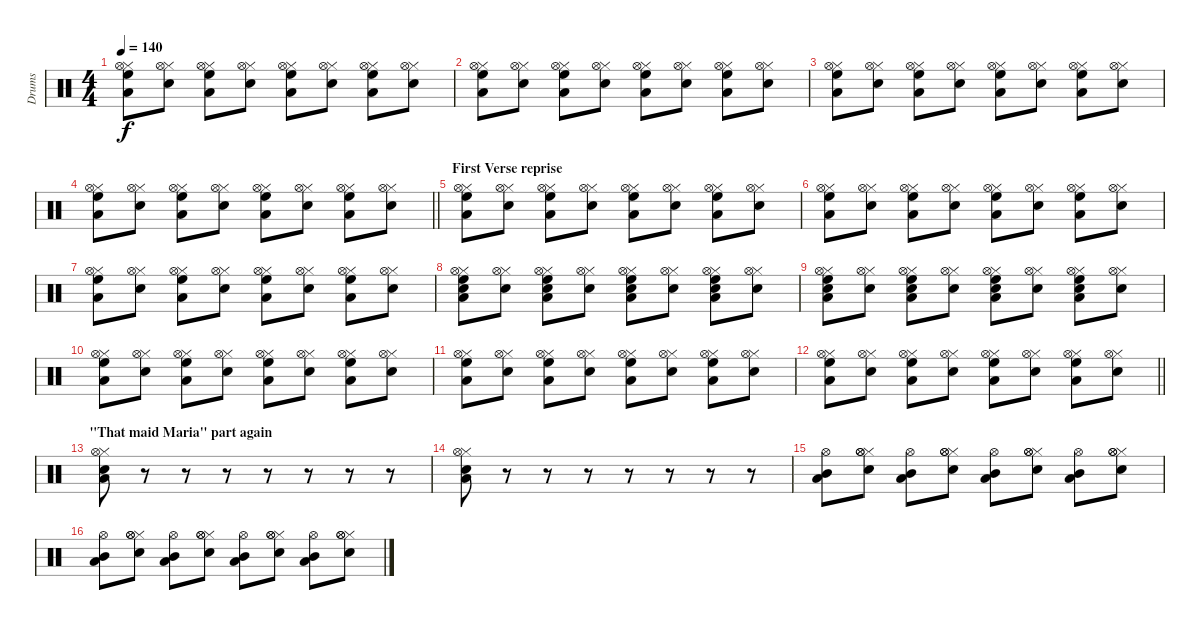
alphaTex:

\track ("Drums" "Drums") {instrument percussion}
\staff {score}
\articulation defaults
\ts (4 4)
\tempo 140
\clef neutral
\ks c
("Hi-Hat (closed)" "Low Tom (hit)" "Hi-Hat (open)" "High Floor Tom (hit)").8{dy f} ("Hi-Hat (closed)" "Hi-Hat (open)" "Electric Snare (hit)").8 ("Hi-Hat (closed)" "Low Tom (hit)" "Hi-Hat (open)" "High Floor Tom (hit)").8 ("Hi-Hat (closed)" "Hi-Hat (open)" "Electric Snare (hit)").8 ("Hi-Hat (closed)" "Low Tom (hit)" "Hi-Hat (open)" "High Floor Tom (hit)").8 ("Hi-Hat (closed)" "Hi-Hat (open)" "Electric Snare (hit)").8 ("Hi-Hat (closed)" "Low Tom (hit)" "Hi-Hat (open)" "High Floor Tom (hit)").8 ("Hi-Hat (closed)" "Hi-Hat (open)" "Electric Snare (hit)").8 |
("Hi-Hat (closed)" "Low Tom (hit)" "Hi-Hat (open)" "High Floor Tom (hit)").8 ("Hi-Hat (closed)" "Hi-Hat (open)" "Electric Snare (hit)").8 ("Hi-Hat (closed)" "Low Tom (hit)" "Hi-Hat (open)" "High Floor Tom (hit)").8 ("Hi-Hat (closed)" "Hi-Hat (open)" "Electric Snare (hit)").8 ("Hi-Hat (closed)" "Low Tom (hit)" "Hi-Hat (open)" "High Floor Tom (hit)").8 ("Hi-Hat (closed)" "Hi-Hat (open)" "Electric Snare (hit)").8 ("Hi-Hat (closed)" "Low Tom (hit)" "Hi-Hat (open)" "High Floor Tom (hit)").8 ("Hi-Hat (closed)" "Hi-Hat (open)" "Electric Snare (hit)").8 |
("Hi-Hat (closed)" "Low Tom (hit)" "Hi-Hat (open)" "High Floor Tom (hit)").8 ("Hi-Hat (closed)" "Hi-Hat (open)" "Electric Snare (hit)").8 ("Hi-Hat (closed)" "Low Tom (hit)" "Hi-Hat (open)" "High Floor Tom (hit)").8 ("Hi-Hat (closed)" "Hi-Hat (open)" "Electric Snare (hit)").8 ("Hi-Hat (closed)" "Low Tom (hit)" "Hi-Hat (open)" "High Floor Tom (hit)").8 ("Hi-Hat (closed)" "Hi-Hat (open)" "Electric Snare (hit)").8 ("Hi-Hat (closed)" "Low Tom (hit)" "Hi-Hat (open)" "High Floor Tom (hit)").8 ("Hi-Hat (closed)" "Hi-Hat (open)" "Electric Snare (hit)").8 |
\barLineRight lightlight
("Hi-Hat (closed)" "Low Tom (hit)" "Hi-Hat (open)" "High Floor Tom (hit)").8 ("Hi-Hat (closed)" "Hi-Hat (open)" "Electric Snare (hit)").8 ("Hi-Hat (closed)" "Low Tom (hit)" "Hi-Hat (open)" "High Floor Tom (hit)").8 ("Hi-Hat (closed)" "Hi-Hat (open)" "Electric Snare (hit)").8 ("Hi-Hat (closed)" "Low Tom (hit)" "Hi-Hat (open)" "High Floor Tom (hit)").8 ("Hi-Hat (closed)" "Hi-Hat (open)" "Electric Snare (hit)").8 ("Hi-Hat (closed)" "Low Tom (hit)" "Hi-Hat (open)" "High Floor Tom (hit)").8 ("Hi-Hat (closed)" "Hi-Hat (open)" "Electric Snare (hit)").8 |
\section ("" "First Verse reprise")
("Hi-Hat (closed)" "Low Tom (hit)" "Hi-Hat (open)" "High Floor Tom (hit)").8 ("Hi-Hat (closed)" "Hi-Hat (open)" "Electric Snare (hit)").8 ("Hi-Hat (closed)" "Low Tom (hit)" "Hi-Hat (open)" "High Floor Tom (hit)").8 ("Hi-Hat (closed)" "Hi-Hat (open)" "Electric Snare (hit)").8 ("Hi-Hat (closed)" "Low Tom (hit)" "Hi-Hat (open)" "High Floor Tom (hit)").8 ("Hi-Hat (closed)" "Hi-Hat (open)" "Electric Snare (hit)").8 ("Hi-Hat (closed)" "Low Tom (hit)" "Hi-Hat (open)" "High Floor Tom (hit)").8 ("Hi-Hat (closed)" "Hi-Hat (open)" "Electric Snare (hit)").8 |
("Hi-Hat (closed)" "Low Tom (hit)" "Hi-Hat (open)" "High Floor Tom (hit)").8 ("Hi-Hat (closed)" "Hi-Hat (open)" "Electric Snare (hit)").8 ("Hi-Hat (closed)" "Low Tom (hit)" "Hi-Hat (open)" "High Floor Tom (hit)").8 ("Hi-Hat (closed)" "Hi-Hat (open)" "Electric Snare (hit)").8 ("Hi-Hat (closed)" "Low Tom (hit)" "Hi-Hat (open)" "High Floor Tom (hit)").8 ("Hi-Hat (closed)" "Hi-Hat (open)" "Electric Snare (hit)").8 ("Hi-Hat (closed)" "Low Tom (hit)" "Hi-Hat (open)" "High Floor Tom (hit)").8 ("Hi-Hat (closed)" "Hi-Hat (open)" "Electric Snare (hit)").8 |
("Hi-Hat (closed)" "Low Tom (hit)" "Hi-Hat (open)" "High Floor Tom (hit)").8 ("Hi-Hat (closed)" "Hi-Hat (open)" "Electric Snare (hit)").8 ("Hi-Hat (closed)" "Low Tom (hit)" "Hi-Hat (open)" "High Floor Tom (hit)").8 ("Hi-Hat (closed)" "Hi-Hat (open)" "Electric Snare (hit)").8 ("Hi-Hat (closed)" "Low Tom (hit)" "Hi-Hat (open)" "High Floor Tom (hit)").8 ("Hi-Hat (closed)" "Hi-Hat (open)" "Electric Snare (hit)").8 ("Hi-Hat (closed)" "Low Tom (hit)" "Hi-Hat (open)" "High Floor Tom (hit)").8 ("Hi-Hat (closed)" "Hi-Hat (open)" "Electric Snare (hit)").8 |
("Hi-Hat (closed)" "Electric Snare (hit)" "Low Tom (hit)" "Hi-Hat (open)" "High Floor Tom (hit)").8 ("Hi-Hat (closed)" "Hi-Hat (open)" "Electric Snare (hit)").8 ("Hi-Hat (closed)" "Electric Snare (hit)" "Low Tom (hit)" "Hi-Hat (open)" "High Floor Tom (hit)").8 ("Hi-Hat (closed)" "Hi-Hat (open)" "Electric Snare (hit)").8 ("Hi-Hat (closed)" "Electric Snare (hit)" "Low Tom (hit)" "Hi-Hat (open)" "High Floor Tom (hit)").8 ("Hi-Hat (closed)" "Hi-Hat (open)" "Electric Snare (hit)").8 ("Hi-Hat (closed)" "Electric Snare (hit)" "Low Tom (hit)" "Hi-Hat (open)" "High Floor Tom (hit)").8 ("Hi-Hat (closed)" "Hi-Hat (open)" "Electric Snare (hit)").8 |
("Hi-Hat (closed)" "Electric Snare (hit)" "Low Tom (hit)" "Hi-Hat (open)" "High Floor Tom (hit)").8 ("Hi-Hat (closed)" "Hi-Hat (open)" "Electric Snare (hit)").8 ("Hi-Hat (closed)" "Electric Snare (hit)" "Low Tom (hit)" "Hi-Hat (open)" "High Floor Tom (hit)").8 ("Hi-Hat (closed)" "Hi-Hat (open)" "Electric Snare (hit)").8 ("Hi-Hat (closed)" "Electric Snare (hit)" "Low Tom (hit)" "Hi-Hat (open)" "High Floor Tom (hit)").8 ("Hi-Hat (closed)" "Hi-Hat (open)" "Electric Snare (hit)").8 ("Hi-Hat (closed)" "Electric Snare (hit)" "Low Tom (hit)" "Hi-Hat (open)" "High Floor Tom (hit)").8 ("Hi-Hat (closed)" "Hi-Hat (open)" "Electric Snare (hit)").8 |
("Hi-Hat (closed)" "Low Tom (hit)" "Hi-Hat (open)" "High Floor Tom (hit)").8 ("Hi-Hat (closed)" "Hi-Hat (open)" "Electric Snare (hit)").8 ("Hi-Hat (closed)" "Low Tom (hit)" "Hi-Hat (open)" "High Floor Tom (hit)").8 ("Hi-Hat (closed)" "Hi-Hat (open)" "Electric Snare (hit)").8 ("Hi-Hat (closed)" "Low Tom (hit)" "Hi-Hat (open)" "High Floor Tom (hit)").8 ("Hi-Hat (closed)" "Hi-Hat (open)" "Electric Snare (hit)").8 ("Hi-Hat (closed)" "Low Tom (hit)" "Hi-Hat (open)" "High Floor Tom (hit)").8 ("Hi-Hat (closed)" "Hi-Hat (open)" "Electric Snare (hit)").8 |
("Hi-Hat (closed)" "Low Tom (hit)" "Hi-Hat (open)" "High Floor Tom (hit)").8 ("Hi-Hat (closed)" "Hi-Hat (open)" "Electric Snare (hit)").8 ("Hi-Hat (closed)" "Low Tom (hit)" "Hi-Hat (open)" "High Floor Tom (hit)").8 ("Hi-Hat (closed)" "Hi-Hat (open)" "Electric Snare (hit)").8 ("Hi-Hat (closed)" "Low Tom (hit)" "Hi-Hat (open)" "High Floor Tom (hit)").8 ("Hi-Hat (closed)" "Hi-Hat (open)" "Electric Snare (hit)").8 ("Hi-Hat (closed)" "Low Tom (hit)" "Hi-Hat (open)" "High Floor Tom (hit)").8 ("Hi-Hat (closed)" "Hi-Hat (open)" "Electric Snare (hit)").8 |
\barLineRight lightlight
("Hi-Hat (closed)" "Low Tom (hit)" "Hi-Hat (open)" "High Floor Tom (hit)").8 ("Hi-Hat (closed)" "Hi-Hat (open)" "Electric Snare (hit)").8 ("Hi-Hat (closed)" "Low Tom (hit)" "Hi-Hat (open)" "High Floor Tom (hit)").8 ("Hi-Hat (closed)" "Hi-Hat (open)" "Electric Snare (hit)").8 ("Hi-Hat (closed)" "Low Tom (hit)" "Hi-Hat (open)" "High Floor Tom (hit)").8 ("Hi-Hat (closed)" "Hi-Hat (open)" "Electric Snare (hit)").8 ("Hi-Hat (closed)" "Low Tom (hit)" "Hi-Hat (open)" "High Floor Tom (hit)").8 ("Hi-Hat (closed)" "Hi-Hat (open)" "Electric Snare (hit)").8 |
\section ("" "\"That maid Maria\" part again")
("Hi-Hat (closed)" "Hi-Hat (open)" "Low Tom (hit)" "Electric Snare (hit)").8 r.8 r.8 r.8 r.8 r.8 r.8 r.8 |
("Hi-Hat (closed)" "Hi-Hat (open)" "Low Tom (hit)" "Electric Snare (hit)").8 r.8 r.8 r.8 r.8 r.8 r.8 r.8 |
("Mid Tom (hit)" "Hi-Hat (open)" "Low Tom (hit)").8 ("Hi-Hat (closed)" "Hi-Hat (open)" "Hi-Hat (open)" "Electric Snare (hit)").8 ("Mid Tom (hit)" "Hi-Hat (open)" "Low Tom (hit)").8 ("Hi-Hat (closed)" "Hi-Hat (open)" "Hi-Hat (open)" "Electric Snare (hit)").8 ("Mid Tom (hit)" "Hi-Hat (open)" "Low Tom (hit)").8 ("Hi-Hat (closed)" "Hi-Hat (open)" "Hi-Hat (open)" "Electric Snare (hit)").8 ("Mid Tom (hit)" "Hi-Hat (open)" "Low Tom (hit)").8 ("Hi-Hat (closed)" "Hi-Hat (open)" "Hi-Hat (open)" "Electric Snare (hit)").8 |
("Mid Tom (hit)" "Hi-Hat (open)" "Low Tom (hit)").8 ("Hi-Hat (closed)" "Hi-Hat (open)" "Hi-Hat (open)" "Electric Snare (hit)").8 ("Mid Tom (hit)" "Hi-Hat (open)" "Low Tom (hit)").8 ("Hi-Hat (closed)" "Hi-Hat (open)" "Hi-Hat (open)" "Electric Snare (hit)").8 ("Mid Tom (hit)" "Hi-Hat (open)" "Low Tom (hit)").8 ("Hi-Hat (closed)" "Hi-Hat (open)" "Hi-Hat (open)" "Electric Snare (hit)").8 ("Mid Tom (hit)" "Hi-Hat (open)" "Low Tom (hit)").8 ("Hi-Hat (closed)" "Hi-Hat (open)" "Hi-Hat (open)" "Electric Snare (hit)").8
